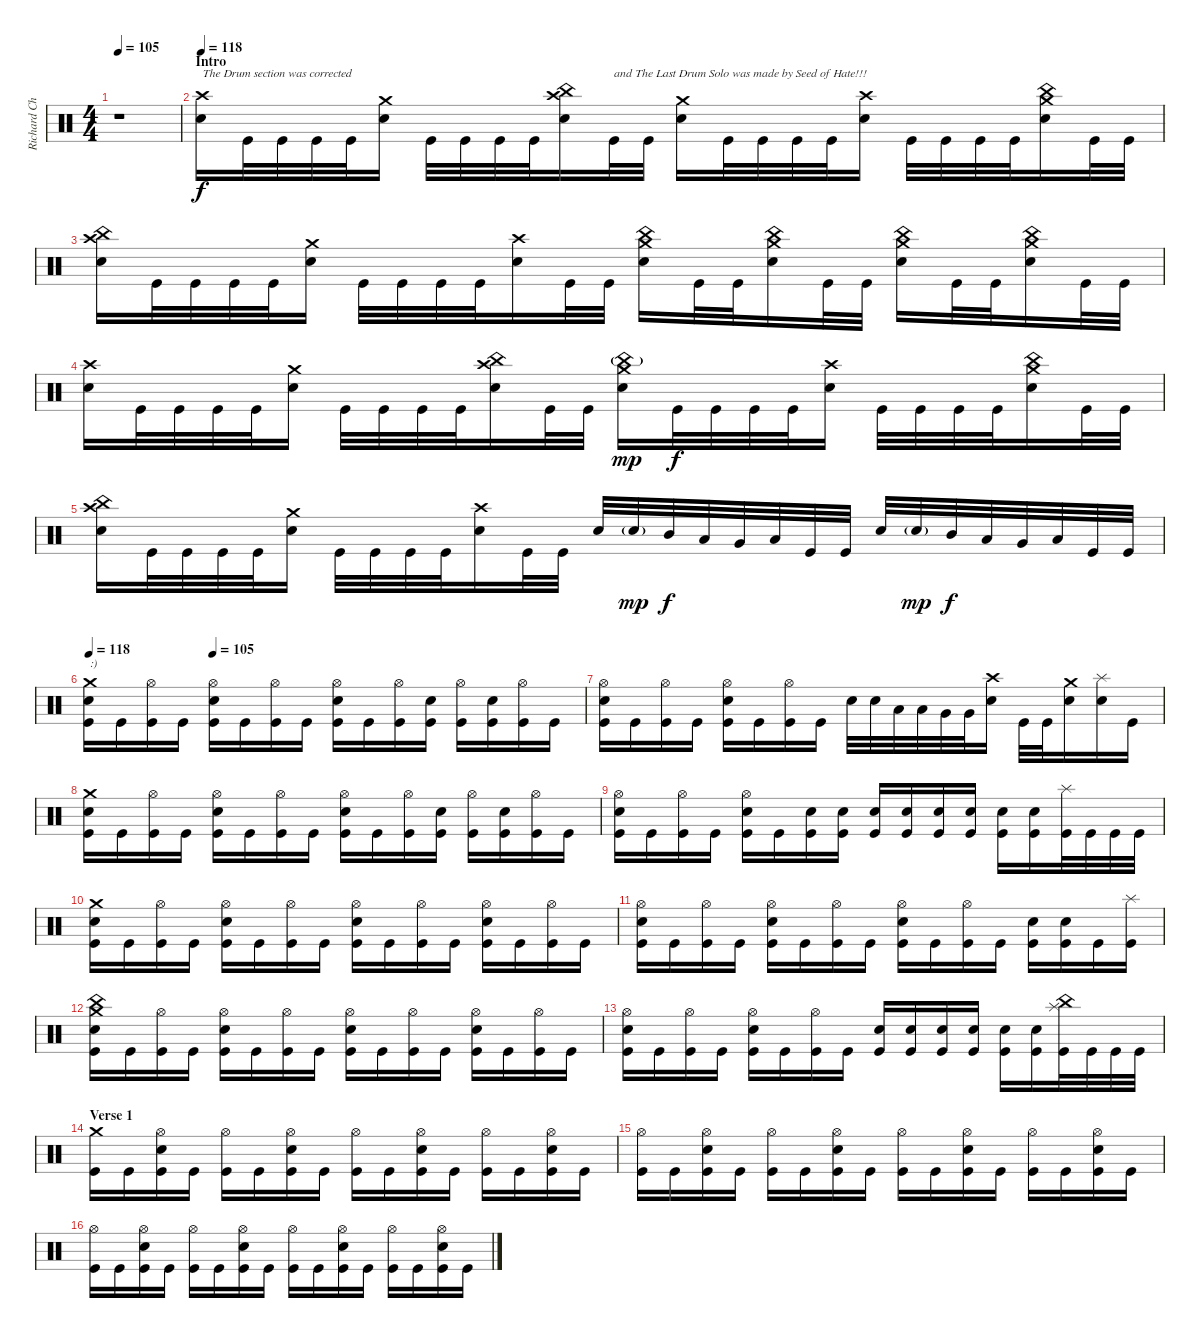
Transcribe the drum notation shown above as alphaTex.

\track ("Richard Christy" "Richard Ch") {instrument percussion}
\staff {score}
\articulation defaults
\ts (4 4)
\tempo 105
\tempo 118
\tempo 105
\clef neutral
\ks c
r.1{dy f} |
\section ("" "Intro")
\tempo 118
("Crash high (hit)" "Electric Snare (hit)").16{txt "The Drum section was corrected"} "Kick (hit)".32 "Kick (hit)".32 "Kick (hit)".32 "Kick (hit)".32 ("Crash medium (hit)" "Electric Snare (hit)").16 "Kick (hit)".32 "Kick (hit)".32 "Kick (hit)".32 "Kick (hit)".32 ("Crash high (hit)" "China (hit)" "Electric Snare (hit)").16 "Kick (hit)".32{txt "and The Last Drum Solo was made by Seed of Hate!!!"} "Kick (hit)".32 ("Crash medium (hit)" "Electric Snare (hit)").16 "Kick (hit)".32 "Kick (hit)".32 "Kick (hit)".32 "Kick (hit)".32 ("Crash high (hit)" "Electric Snare (hit)").16 "Kick (hit)".32 "Kick (hit)".32 "Kick (hit)".32 "Kick (hit)".32 ("Crash medium (hit)" "China (hit)" "Electric Snare (hit)").16 "Kick (hit)".32 "Kick (hit)".32 |
("Crash high (hit)" "China (hit)" "Electric Snare (hit)").16 "Kick (hit)".32 "Kick (hit)".32 "Kick (hit)".32 "Kick (hit)".32 ("Crash medium (hit)" "Electric Snare (hit)").16 "Kick (hit)".32 "Kick (hit)".32 "Kick (hit)".32 "Kick (hit)".32 ("Crash high (hit)" "Electric Snare (hit)").16 "Kick (hit)".32 "Kick (hit)".32 ("Crash medium (hit)" "China (hit)" "Electric Snare (hit)").16 "Kick (hit)".32 "Kick (hit)".32 ("Crash medium (hit)" "China (hit)" "Electric Snare (hit)").16 "Kick (hit)".32 "Kick (hit)".32 ("Crash medium (hit)" "China (hit)" "Electric Snare (hit)").16 "Kick (hit)".32 "Kick (hit)".32 ("Crash medium (hit)" "China (hit)" "Electric Snare (hit)").16 "Kick (hit)".32 "Kick (hit)".32 |
("Crash high (hit)" "Electric Snare (hit)").16 "Kick (hit)".32 "Kick (hit)".32 "Kick (hit)".32 "Kick (hit)".32 ("Crash medium (hit)" "Electric Snare (hit)").16 "Kick (hit)".32 "Kick (hit)".32 "Kick (hit)".32 "Kick (hit)".32 ("Crash high (hit)" "China (hit)" "Electric Snare (hit)").16 "Kick (hit)".32 "Kick (hit)".32 ("Crash medium (hit)" "China (hit)"{g} "Electric Snare (hit)").16{dy mp} "Kick (hit)".32{dy f} "Kick (hit)".32 "Kick (hit)".32 "Kick (hit)".32 ("Crash high (hit)" "Electric Snare (hit)").16 "Kick (hit)".32 "Kick (hit)".32 "Kick (hit)".32 "Kick (hit)".32 ("Crash medium (hit)" "China (hit)" "Electric Snare (hit)").16 "Kick (hit)".32 "Kick (hit)".32 |
("Crash high (hit)" "China (hit)" "Electric Snare (hit)").16 "Kick (hit)".32 "Kick (hit)".32 "Kick (hit)".32 "Kick (hit)".32 ("Crash medium (hit)" "Electric Snare (hit)").16 "Kick (hit)".32 "Kick (hit)".32 "Kick (hit)".32 "Kick (hit)".32 ("Crash high (hit)" "Electric Snare (hit)").16 "Kick (hit)".32 "Kick (hit)".32 "Electric Snare (hit)".32 "Electric Snare (hit)"{g}.32{dy mp} "Mid Tom (hit)".32{dy f} "Low Tom (hit)".32 "Very Low Tom (hit)".32 "Low Floor Tom (hit)".32 "Kick (hit)".32 "Kick (hit)".32 "Electric Snare (hit)".32 "Electric Snare (hit)"{g}.32{dy mp} "Mid Tom (hit)".32{dy f} "Low Tom (hit)".32 "Very Low Tom (hit)".32 "Low Floor Tom (hit)".32 "Kick (hit)".32 "Kick (hit)".32 |
\tempo 118
\tempo (105 0.25)
("Crash medium (hit)" "Electric Snare (hit)" "Kick (hit)").16{txt ":)"} "Kick (hit)".16 ("Hi-Hat (open)" "Kick (hit)").16 "Kick (hit)".16 ("Hi-Hat (open)" "Electric Snare (hit)" "Kick (hit)").16 "Kick (hit)".16 ("Hi-Hat (open)" "Kick (hit)").16 "Kick (hit)".16 ("Hi-Hat (open)" "Electric Snare (hit)" "Kick (hit)").16 "Kick (hit)".16 ("Hi-Hat (open)" "Kick (hit)").16 ("Electric Snare (hit)" "Kick (hit)").16 ("Hi-Hat (open)" "Kick (hit)").16 ("Electric Snare (hit)" "Kick (hit)").16 ("Hi-Hat (open)" "Kick (hit)").16 "Kick (hit)".16 |
("Hi-Hat (open)" "Electric Snare (hit)" "Kick (hit)").16 "Kick (hit)".16 ("Hi-Hat (open)" "Kick (hit)").16 "Kick (hit)".16 ("Hi-Hat (open)" "Electric Snare (hit)" "Kick (hit)").16 "Kick (hit)".16 ("Hi-Hat (open)" "Kick (hit)").16 "Kick (hit)".16 "Electric Snare (hit)".32 "Electric Snare (hit)".32 "Low Tom (hit)".32 "Low Tom (hit)".32 "Very Low Tom (hit)".32 "Very Low Tom (hit)".32 ("Crash high (hit)" "Electric Snare (hit)").16 "Kick (hit)".32 "Kick (hit)".32 ("Crash medium (hit)" "Electric Snare (hit)").16 ("Splash (hit)" "Electric Snare (hit)").16 "Kick (hit)".16 |
("Crash medium (hit)" "Electric Snare (hit)" "Kick (hit)").16 "Kick (hit)".16 ("Hi-Hat (open)" "Kick (hit)").16 "Kick (hit)".16 ("Hi-Hat (open)" "Electric Snare (hit)" "Kick (hit)").16 "Kick (hit)".16 ("Hi-Hat (open)" "Kick (hit)").16 "Kick (hit)".16 ("Hi-Hat (open)" "Electric Snare (hit)" "Kick (hit)").16 "Kick (hit)".16 ("Hi-Hat (open)" "Kick (hit)").16 ("Electric Snare (hit)" "Kick (hit)").16 ("Hi-Hat (open)" "Kick (hit)").16 ("Electric Snare (hit)" "Kick (hit)").16 ("Hi-Hat (open)" "Kick (hit)").16 "Kick (hit)".16 |
("Hi-Hat (open)" "Electric Snare (hit)" "Kick (hit)").16 "Kick (hit)".16 ("Hi-Hat (open)" "Kick (hit)").16 "Kick (hit)".16 ("Hi-Hat (open)" "Electric Snare (hit)" "Kick (hit)").16 "Kick (hit)".16 ("Electric Snare (hit)" "Kick (hit)").16 ("Electric Snare (hit)" "Kick (hit)").16 ("Electric Snare (hit)" "Kick (hit)").16 ("Electric Snare (hit)" "Kick (hit)").16 ("Electric Snare (hit)" "Kick (hit)").16 ("Electric Snare (hit)" "Kick (hit)").16 ("Electric Snare (hit)" "Kick (hit)").16 ("Electric Snare (hit)" "Kick (hit)").16 ("Splash (hit)" "Kick (hit)").32 "Kick (hit)".32 "Kick (hit)".32 "Kick (hit)".32 |
("Crash medium (hit)" "Electric Snare (hit)" "Kick (hit)").16 "Kick (hit)".16 ("Hi-Hat (open)" "Kick (hit)").16 "Kick (hit)".16 ("Hi-Hat (open)" "Electric Snare (hit)" "Kick (hit)").16 "Kick (hit)".16 ("Hi-Hat (open)" "Kick (hit)").16 "Kick (hit)".16 ("Hi-Hat (open)" "Electric Snare (hit)" "Kick (hit)").16 "Kick (hit)".16 ("Hi-Hat (open)" "Kick (hit)").16 "Kick (hit)".16 ("Hi-Hat (open)" "Electric Snare (hit)" "Kick (hit)").16 "Kick (hit)".16 ("Hi-Hat (open)" "Kick (hit)").16 "Kick (hit)".16 |
("Hi-Hat (open)" "Electric Snare (hit)" "Kick (hit)").16 "Kick (hit)".16 ("Hi-Hat (open)" "Kick (hit)").16 "Kick (hit)".16 ("Hi-Hat (open)" "Electric Snare (hit)" "Kick (hit)").16 "Kick (hit)".16 ("Hi-Hat (open)" "Kick (hit)").16 "Kick (hit)".16 ("Hi-Hat (open)" "Electric Snare (hit)" "Kick (hit)").16 "Kick (hit)".16 ("Hi-Hat (open)" "Kick (hit)").16 "Kick (hit)".16 ("Electric Snare (hit)" "Kick (hit)").16 ("Electric Snare (hit)" "Kick (hit)").16 "Kick (hit)".16 ("Splash (hit)" "Kick (hit)").16 |
("Crash medium (hit)" "China (hit)" "Electric Snare (hit)" "Kick (hit)").16 "Kick (hit)".16 ("Hi-Hat (open)" "Kick (hit)").16 "Kick (hit)".16 ("Hi-Hat (open)" "Electric Snare (hit)" "Kick (hit)").16 "Kick (hit)".16 ("Hi-Hat (open)" "Kick (hit)").16 "Kick (hit)".16 ("Hi-Hat (open)" "Electric Snare (hit)" "Kick (hit)").16 "Kick (hit)".16 ("Hi-Hat (open)" "Kick (hit)").16 "Kick (hit)".16 ("Hi-Hat (open)" "Electric Snare (hit)" "Kick (hit)").16 "Kick (hit)".16 ("Hi-Hat (open)" "Kick (hit)").16 "Kick (hit)".16 |
("Hi-Hat (open)" "Electric Snare (hit)" "Kick (hit)").16 "Kick (hit)".16 ("Hi-Hat (open)" "Kick (hit)").16 "Kick (hit)".16 ("Hi-Hat (open)" "Electric Snare (hit)" "Kick (hit)").16 "Kick (hit)".16 ("Hi-Hat (open)" "Kick (hit)").16 "Kick (hit)".16 ("Electric Snare (hit)" "Kick (hit)").16 ("Electric Snare (hit)" "Kick (hit)").16 ("Electric Snare (hit)" "Kick (hit)").16 ("Electric Snare (hit)" "Kick (hit)").16 ("Electric Snare (hit)" "Kick (hit)").16 ("Electric Snare (hit)" "Kick (hit)").16 ("Splash (hit)" "China (hit)" "Kick (hit)").32 "Kick (hit)".32 "Kick (hit)".32 "Kick (hit)".32 |
\section ("" "Verse 1")
("Crash medium (hit)" "Kick (hit)").16 "Kick (hit)".16 ("Hi-Hat (open)" "Electric Snare (hit)" "Kick (hit)").16 "Kick (hit)".16 ("Hi-Hat (open)" "Kick (hit)").16 "Kick (hit)".16 ("Hi-Hat (open)" "Electric Snare (hit)" "Kick (hit)").16 "Kick (hit)".16 ("Hi-Hat (open)" "Kick (hit)").16 "Kick (hit)".16 ("Hi-Hat (open)" "Electric Snare (hit)" "Kick (hit)").16 "Kick (hit)".16 ("Hi-Hat (open)" "Kick (hit)").16 "Kick (hit)".16 ("Hi-Hat (open)" "Electric Snare (hit)" "Kick (hit)").16 "Kick (hit)".16 |
("Hi-Hat (open)" "Kick (hit)").16 "Kick (hit)".16 ("Hi-Hat (open)" "Electric Snare (hit)" "Kick (hit)").16 "Kick (hit)".16 ("Hi-Hat (open)" "Kick (hit)").16 "Kick (hit)".16 ("Hi-Hat (open)" "Electric Snare (hit)" "Kick (hit)").16 "Kick (hit)".16 ("Hi-Hat (open)" "Kick (hit)").16 "Kick (hit)".16 ("Hi-Hat (open)" "Electric Snare (hit)" "Kick (hit)").16 "Kick (hit)".16 ("Hi-Hat (open)" "Kick (hit)").16 "Kick (hit)".16 ("Hi-Hat (open)" "Electric Snare (hit)" "Kick (hit)").16 "Kick (hit)".16 |
("Hi-Hat (open)" "Kick (hit)").16 "Kick (hit)".16 ("Hi-Hat (open)" "Electric Snare (hit)" "Kick (hit)").16 "Kick (hit)".16 ("Hi-Hat (open)" "Kick (hit)").16 "Kick (hit)".16 ("Hi-Hat (open)" "Electric Snare (hit)" "Kick (hit)").16 "Kick (hit)".16 ("Hi-Hat (open)" "Kick (hit)").16 "Kick (hit)".16 ("Hi-Hat (open)" "Electric Snare (hit)" "Kick (hit)").16 "Kick (hit)".16 ("Hi-Hat (open)" "Kick (hit)").16 "Kick (hit)".16 ("Hi-Hat (open)" "Electric Snare (hit)" "Kick (hit)").16 "Kick (hit)".16
